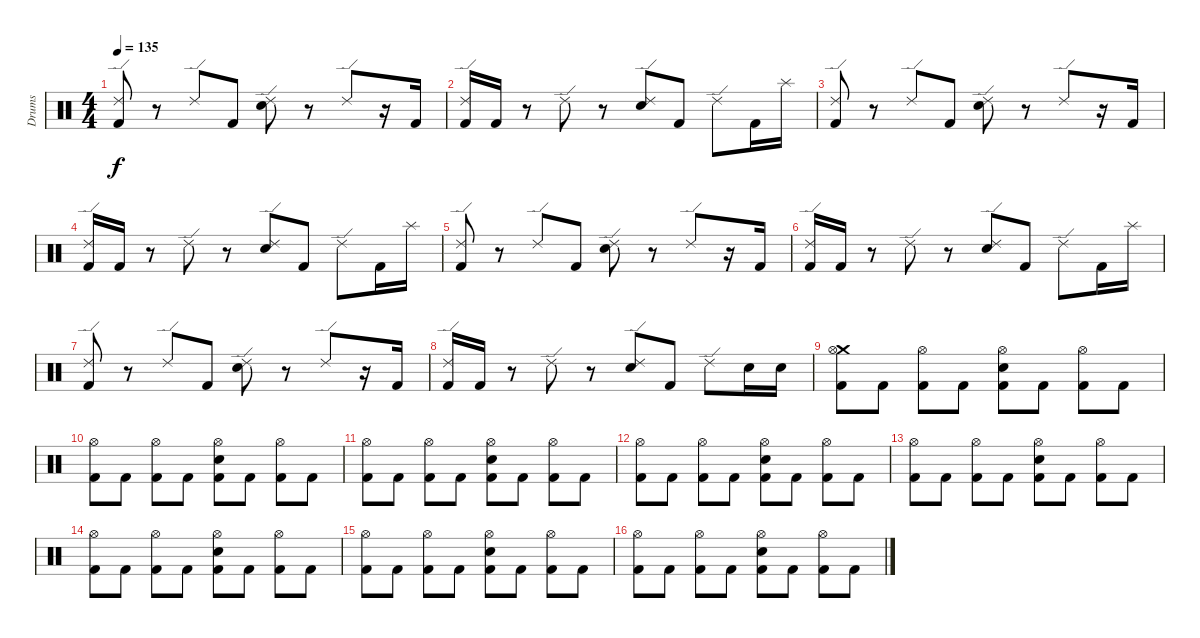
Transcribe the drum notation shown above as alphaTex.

\track ("Drums" "Drums") {instrument percussion}
\staff {score}
\articulation defaults
\ts (4 4)
\tempo 135
\clef neutral
\ks c
("Ride (edge) 2" "Kick (hit) 2").8{dy f} r.8 "Ride (edge) 2".8 "Kick (hit) 2".8 ("Ride (edge) 2" "Snare (hit) 2").8 r.8 "Ride (edge) 2".8 r.16 "Kick (hit) 2".16 |
("Ride (edge) 2" "Kick (hit) 2").16 "Kick (hit) 2".16 r.8 "Ride (edge) 2".8 r.8 ("Ride (edge) 2" "Snare (hit) 2").8 "Kick (hit) 2".8 "Ride (edge) 2".8 "Kick (hit) 2".16 "Splash (hit)".16 |
("Ride (edge) 2" "Kick (hit) 2").8 r.8 "Ride (edge) 2".8 "Kick (hit) 2".8 ("Ride (edge) 2" "Snare (hit) 2").8 r.8 "Ride (edge) 2".8 r.16 "Kick (hit) 2".16 |
("Ride (edge) 2" "Kick (hit) 2").16 "Kick (hit) 2".16 r.8 "Ride (edge) 2".8 r.8 ("Ride (edge) 2" "Snare (hit) 2").8 "Kick (hit) 2".8 "Ride (edge) 2".8 "Kick (hit) 2".16 "Splash (hit)".16 |
("Ride (edge) 2" "Kick (hit) 2").8 r.8 "Ride (edge) 2".8 "Kick (hit) 2".8 ("Ride (edge) 2" "Snare (hit) 2").8 r.8 "Ride (edge) 2".8 r.16 "Kick (hit) 2".16 |
("Ride (edge) 2" "Kick (hit) 2").16 "Kick (hit) 2".16 r.8 "Ride (edge) 2".8 r.8 ("Ride (edge) 2" "Snare (hit) 2").8 "Kick (hit) 2".8 "Ride (edge) 2".8 "Kick (hit) 2".16 "Splash (hit)".16 |
("Ride (edge) 2" "Kick (hit) 2").8 r.8 "Ride (edge) 2".8 "Kick (hit) 2".8 ("Ride (edge) 2" "Snare (hit) 2").8 r.8 "Ride (edge) 2".8 r.16 "Kick (hit) 2".16 |
("Ride (edge) 2" "Kick (hit) 2").16 "Kick (hit) 2".16 r.8 "Ride (edge) 2".8 r.8 ("Ride (edge) 2" "Snare (hit) 2").8 "Kick (hit) 2".8 "Ride (edge) 2".8 "Snare (hit) 2".16 "Snare (hit) 2".16 |
("Crash medium (hit)" "Kick (hit) 2" "Hi-Hat (open)").8 "Kick (hit) 2".8 ("Hi-Hat (open)" "Kick (hit) 2").8 "Kick (hit) 2".8 ("Hi-Hat (open)" "Kick (hit) 2" "Snare (hit) 2").8 "Kick (hit) 2".8 ("Hi-Hat (open)" "Kick (hit) 2").8 "Kick (hit) 2".8 |
("Kick (hit) 2" "Hi-Hat (open)").8 "Kick (hit) 2".8 ("Hi-Hat (open)" "Kick (hit) 2").8 "Kick (hit) 2".8 ("Hi-Hat (open)" "Kick (hit) 2" "Snare (hit) 2").8 "Kick (hit) 2".8 ("Hi-Hat (open)" "Kick (hit) 2").8 "Kick (hit) 2".8 |
("Kick (hit) 2" "Hi-Hat (open)").8 "Kick (hit) 2".8 ("Hi-Hat (open)" "Kick (hit) 2").8 "Kick (hit) 2".8 ("Hi-Hat (open)" "Kick (hit) 2" "Snare (hit) 2").8 "Kick (hit) 2".8 ("Hi-Hat (open)" "Kick (hit) 2").8 "Kick (hit) 2".8 |
("Kick (hit) 2" "Hi-Hat (open)").8 "Kick (hit) 2".8 ("Hi-Hat (open)" "Kick (hit) 2").8 "Kick (hit) 2".8 ("Hi-Hat (open)" "Kick (hit) 2" "Snare (hit) 2").8 "Kick (hit) 2".8 ("Hi-Hat (open)" "Kick (hit) 2").8 "Kick (hit) 2".8 |
("Kick (hit) 2" "Hi-Hat (open)").8 "Kick (hit) 2".8 ("Hi-Hat (open)" "Kick (hit) 2").8 "Kick (hit) 2".8 ("Hi-Hat (open)" "Kick (hit) 2" "Snare (hit) 2").8 "Kick (hit) 2".8 ("Hi-Hat (open)" "Kick (hit) 2").8 "Kick (hit) 2".8 |
("Kick (hit) 2" "Hi-Hat (open)").8 "Kick (hit) 2".8 ("Hi-Hat (open)" "Kick (hit) 2").8 "Kick (hit) 2".8 ("Hi-Hat (open)" "Kick (hit) 2" "Snare (hit) 2").8 "Kick (hit) 2".8 ("Hi-Hat (open)" "Kick (hit) 2").8 "Kick (hit) 2".8 |
("Kick (hit) 2" "Hi-Hat (open)").8 "Kick (hit) 2".8 ("Hi-Hat (open)" "Kick (hit) 2").8 "Kick (hit) 2".8 ("Hi-Hat (open)" "Kick (hit) 2" "Snare (hit) 2").8 "Kick (hit) 2".8 ("Hi-Hat (open)" "Kick (hit) 2").8 "Kick (hit) 2".8 |
("Kick (hit) 2" "Hi-Hat (open)").8 "Kick (hit) 2".8 ("Hi-Hat (open)" "Kick (hit) 2").8 "Kick (hit) 2".8 ("Hi-Hat (open)" "Kick (hit) 2" "Snare (hit) 2").8 "Kick (hit) 2".8 ("Hi-Hat (open)" "Kick (hit) 2").8 "Kick (hit) 2".8
